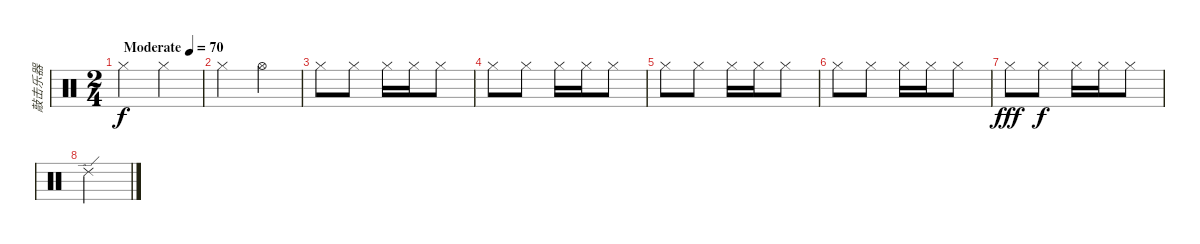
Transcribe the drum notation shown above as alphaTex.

\track ("敲击乐器" "敲击乐器") {instrument percussion}
\staff {score}
\articulation defaults
\ts (2 4)
\tempo (70 "Moderate")
\clef neutral
\ks c "Hi-Hat (closed)".4{dy f} "Hi-Hat (closed)".4
|
"Hi-Hat (closed)".4 "Hi-Hat (open)".4 |
"Hi-Hat (closed)".8 "Hi-Hat (closed)".8 "Hi-Hat (closed)".16 "Hi-Hat (closed)".16 "Hi-Hat (closed)".8 |
"Hi-Hat (closed)".8 "Hi-Hat (closed)".8 "Hi-Hat (closed)".16 "Hi-Hat (closed)".16 "Hi-Hat (closed)".8 |
"Hi-Hat (closed)".8 "Hi-Hat (closed)".8 "Hi-Hat (closed)".16 "Hi-Hat (closed)".16 "Hi-Hat (closed)".8 |
"Hi-Hat (closed)".8 "Hi-Hat (closed)".8 "Hi-Hat (closed)".16 "Hi-Hat (closed)".16 "Hi-Hat (closed)".8 |
"Hi-Hat (closed)".8{dy fff} "Hi-Hat (closed)".8{dy f} "Hi-Hat (closed)".16 "Hi-Hat (closed)".16 "Hi-Hat (closed)".8 |
"Ride (edge) 2".2
